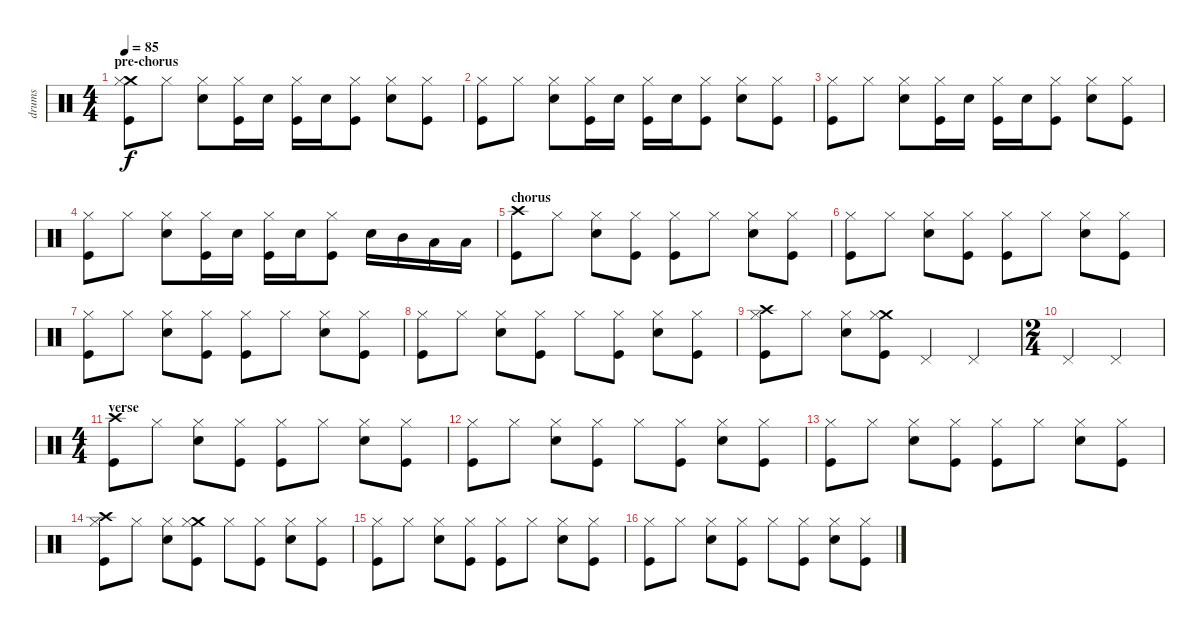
\track ("drums" "drums") {instrument percussion}
\staff {score}
\articulation defaults
\ts (4 4)
\section ("" "pre-chorus")
\tempo 85
\clef neutral
\ks c
("Crash medium (hit)" "Hi-Hat (closed)" "Kick (hit)").8{dy f} "Hi-Hat (closed)".8 ("Hi-Hat (closed)" "Snare (hit) 2").8 ("Hi-Hat (closed)" "Kick (hit)").16 "Snare (hit) 2".16 ("Hi-Hat (closed)" "Kick (hit)").16 "Snare (hit) 2".16 ("Hi-Hat (closed)" "Kick (hit)").8 ("Hi-Hat (closed)" "Snare (hit) 2").8 ("Hi-Hat (closed)" "Kick (hit)").8 |
("Hi-Hat (closed)" "Kick (hit)").8 "Hi-Hat (closed)".8 ("Hi-Hat (closed)" "Snare (hit) 2").8 ("Hi-Hat (closed)" "Kick (hit)").16 "Snare (hit) 2".16 ("Hi-Hat (closed)" "Kick (hit)").16 "Snare (hit) 2".16 ("Hi-Hat (closed)" "Kick (hit)").8 ("Hi-Hat (closed)" "Snare (hit) 2").8 ("Hi-Hat (closed)" "Kick (hit)").8 |
("Hi-Hat (closed)" "Kick (hit)").8 "Hi-Hat (closed)".8 ("Hi-Hat (closed)" "Snare (hit) 2").8 ("Hi-Hat (closed)" "Kick (hit)").16 "Snare (hit) 2".16 ("Hi-Hat (closed)" "Kick (hit)").16 "Snare (hit) 2".16 ("Hi-Hat (closed)" "Kick (hit)").8 ("Hi-Hat (closed)" "Snare (hit) 2").8 ("Hi-Hat (closed)" "Kick (hit)").8 |
("Hi-Hat (closed)" "Kick (hit)").8 "Hi-Hat (closed)".8 ("Hi-Hat (closed)" "Snare (hit) 2").8 ("Hi-Hat (closed)" "Kick (hit)").16 "Snare (hit) 2".16 ("Hi-Hat (closed)" "Kick (hit)").16 "Snare (hit) 2".16 ("Hi-Hat (closed)" "Kick (hit)").8 "Snare (hit) 2".16 "Mid Tom (hit)".16 "Low Tom (hit)".16 "Low Tom (hit)".16 |
\section ("" "chorus")
("Crash high (hit)" "Kick (hit)").8 "Hi-Hat (closed)".8 ("Hi-Hat (closed)" "Snare (hit) 2").8 ("Hi-Hat (closed)" "Kick (hit)").8 ("Hi-Hat (closed)" "Kick (hit)").8 "Hi-Hat (closed)".8 ("Hi-Hat (closed)" "Snare (hit) 2").8 ("Hi-Hat (closed)" "Kick (hit)").8 |
("Hi-Hat (closed)" "Kick (hit)").8 "Hi-Hat (closed)".8 ("Hi-Hat (closed)" "Snare (hit) 2").8 ("Hi-Hat (closed)" "Kick (hit)").8 ("Hi-Hat (closed)" "Kick (hit)").8 "Hi-Hat (closed)".8 ("Hi-Hat (closed)" "Snare (hit) 2").8 ("Hi-Hat (closed)" "Kick (hit)").8 |
("Hi-Hat (closed)" "Kick (hit)").8 "Hi-Hat (closed)".8 ("Hi-Hat (closed)" "Snare (hit) 2").8 ("Hi-Hat (closed)" "Kick (hit)").8 ("Hi-Hat (closed)" "Kick (hit)").8 "Hi-Hat (closed)".8 ("Hi-Hat (closed)" "Snare (hit) 2").8 ("Hi-Hat (closed)" "Kick (hit)").8 |
("Hi-Hat (closed)" "Kick (hit)").8 "Hi-Hat (closed)".8 ("Hi-Hat (closed)" "Snare (hit) 2").8 ("Hi-Hat (closed)" "Kick (hit)").8 "Hi-Hat (closed)".8 ("Hi-Hat (closed)" "Kick (hit)").8 ("Hi-Hat (closed)" "Snare (hit) 2").8 ("Hi-Hat (closed)" "Kick (hit)").8 |
("Crash high (hit)" "Hi-Hat (closed)" "Kick (hit)").8 "Hi-Hat (closed)".8 ("Hi-Hat (closed)" "Snare (hit) 2").8 ("Crash medium (hit)" "Hi-Hat (closed)" "Kick (hit)").8 "Pedal Hi-Hat (hit)".4{volume 12} "Pedal Hi-Hat (hit)".4 |
\ts (2 4)
"Pedal Hi-Hat (hit)".4 "Pedal Hi-Hat (hit)".4 |
\ts (4 4)
\section ("" "verse")
("Crash high (hit)" "Kick (hit)").8{volume 16} "Hi-Hat (closed)".8 ("Hi-Hat (closed)" "Snare (hit) 2").8 ("Hi-Hat (closed)" "Kick (hit)").8 ("Hi-Hat (closed)" "Kick (hit)").8 "Hi-Hat (closed)".8 ("Hi-Hat (closed)" "Snare (hit) 2").8 ("Hi-Hat (closed)" "Kick (hit)").8 |
("Hi-Hat (closed)" "Kick (hit)").8 "Hi-Hat (closed)".8 ("Hi-Hat (closed)" "Snare (hit) 2").8 ("Hi-Hat (closed)" "Kick (hit)").8 "Hi-Hat (closed)".8 ("Hi-Hat (closed)" "Kick (hit)").8 ("Hi-Hat (closed)" "Snare (hit) 2").8 ("Hi-Hat (closed)" "Kick (hit)").8 |
("Hi-Hat (closed)" "Kick (hit)").8 "Hi-Hat (closed)".8 ("Hi-Hat (closed)" "Snare (hit) 2").8 ("Hi-Hat (closed)" "Kick (hit)").8 ("Hi-Hat (closed)" "Kick (hit)").8 "Hi-Hat (closed)".8 ("Hi-Hat (closed)" "Snare (hit) 2").8 ("Hi-Hat (closed)" "Kick (hit)").8 |
("Crash high (hit)" "Hi-Hat (closed)" "Kick (hit)").8 "Hi-Hat (closed)".8 ("Hi-Hat (closed)" "Snare (hit) 2").8 ("Crash medium (hit)" "Hi-Hat (closed)" "Kick (hit)").8 "Hi-Hat (closed)".8 ("Hi-Hat (closed)" "Kick (hit)").8 ("Hi-Hat (closed)" "Snare (hit) 2").8 ("Hi-Hat (closed)" "Kick (hit)").8 |
("Hi-Hat (closed)" "Kick (hit)").8 "Hi-Hat (closed)".8 ("Hi-Hat (closed)" "Snare (hit) 2").8 ("Hi-Hat (closed)" "Kick (hit)").8 ("Hi-Hat (closed)" "Kick (hit)").8 "Hi-Hat (closed)".8 ("Hi-Hat (closed)" "Snare (hit) 2").8 ("Hi-Hat (closed)" "Kick (hit)").8 |
("Hi-Hat (closed)" "Kick (hit)").8 "Hi-Hat (closed)".8 ("Hi-Hat (closed)" "Snare (hit) 2").8 ("Hi-Hat (closed)" "Kick (hit)").8 "Hi-Hat (closed)".8 ("Hi-Hat (closed)" "Kick (hit)").8 ("Hi-Hat (closed)" "Snare (hit) 2").8 ("Hi-Hat (closed)" "Kick (hit)").8
